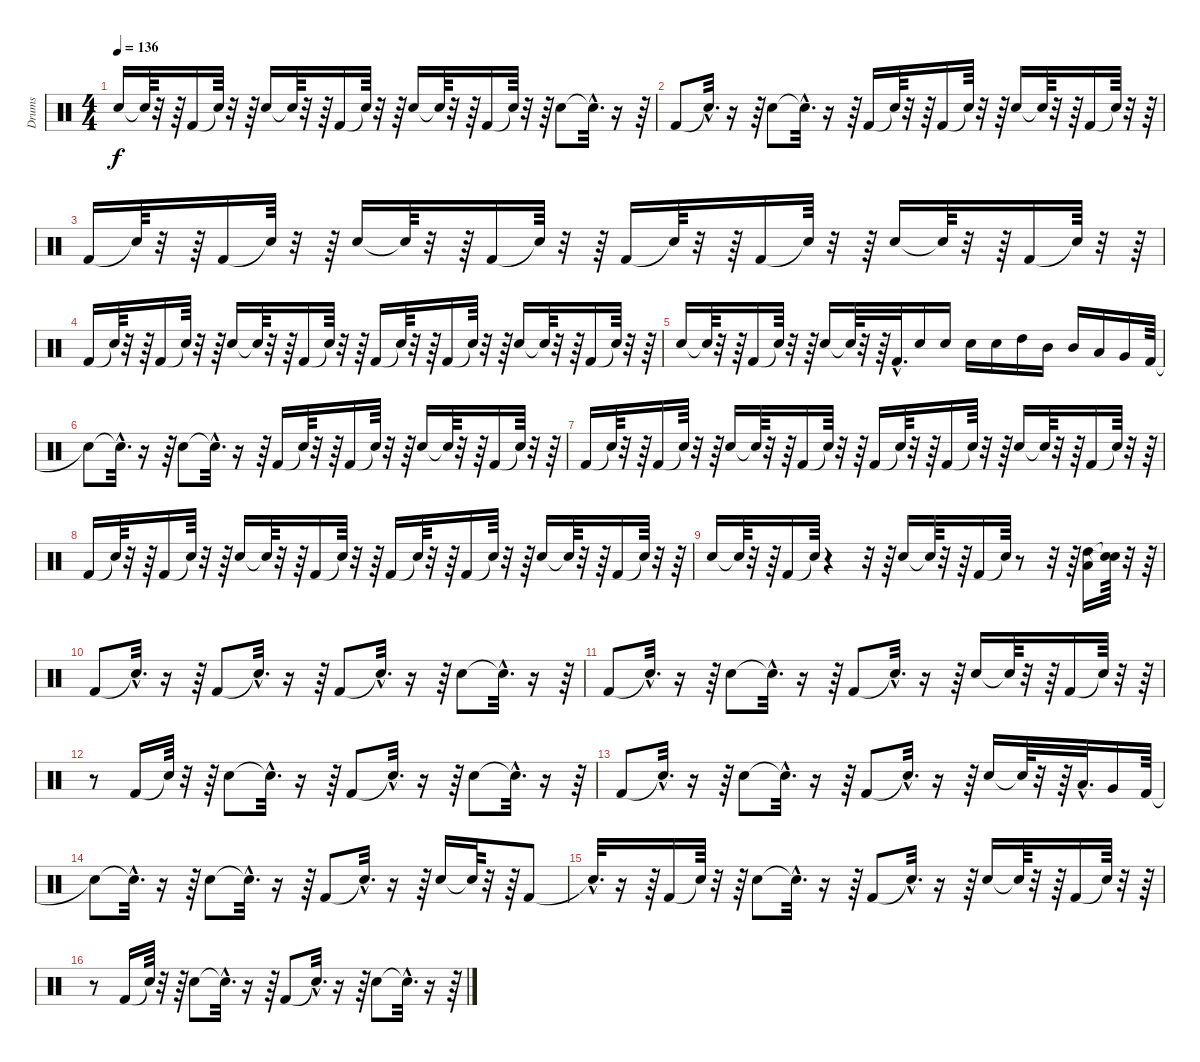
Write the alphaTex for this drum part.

\track ("Drums" "Drums") {instrument percussion}
\staff {score}
\articulation defaults
\ts (4 4)
\tempo 136
\clef neutral
\ks c "Snare (hit) 2".16{dy f} "Snare (hit)"{t}.64
r.32 r.64 "Kick (hit) 2".16 "Snare (hit)"{t}.64 r.32 r.64 "Snare (hit) 2".16 "Snare (hit)"{t}.64 r.32 r.64 "Kick (hit) 2".16 "Snare (hit)"{t}.64 r.32 r.64 "Snare (hit) 2".16 "Snare (hit)"{t}.64 r.32 r.64 "Kick (hit) 2".16 "Snare (hit)"{t}.64 r.32 r.64 "Snare (hit) 2".8 "Snare (hit)"{hac t}.32{d} r.16 r.64 |
"Kick (hit) 2".8 "Snare (hit)"{hac t}.32{d} r.16 r.64 "Snare (hit) 2".8 "Snare (hit)"{hac t}.32{d} r.16 r.64 "Kick (hit) 2".16 "Snare (hit)"{t}.64 r.32 r.64 "Kick (hit) 2".16 "Snare (hit)"{t}.64 r.32 r.64 "Snare (hit) 2".16 "Snare (hit)"{t}.64 r.32 r.64 "Kick (hit) 2".16 "Snare (hit)"{t}.64 r.32 r.64 |
"Kick (hit) 2".16 "Snare (hit)"{t}.64 r.32 r.64 "Kick (hit) 2".16 "Snare (hit)"{t}.64 r.32 r.64 "Snare (hit) 2".16 "Snare (hit)"{t}.64 r.32 r.64 "Kick (hit) 2".16 "Snare (hit)"{t}.64 r.32 r.64 "Kick (hit) 2".16 "Snare (hit)"{t}.64 r.32 r.64 "Kick (hit) 2".16 "Snare (hit)"{t}.64 r.32 r.64 "Snare (hit) 2".16 "Snare (hit)"{t}.64 r.32 r.64 "Kick (hit) 2".16 "Snare (hit)"{t}.64 r.32 r.64 |
"Kick (hit) 2".16 "Snare (hit)"{t}.64 r.32 r.64 "Kick (hit) 2".16 "Snare (hit)"{t}.64 r.32 r.64 "Snare (hit) 2".16 "Snare (hit)"{t}.64 r.32 r.64 "Kick (hit) 2".16 "Snare (hit)"{t}.64 r.32 r.64 "Kick (hit) 2".16 "Snare (hit)"{t}.64 r.32 r.64 "Kick (hit) 2".16 "Snare (hit)"{t}.64 r.32 r.64 "Snare (hit) 2".16 "Snare (hit)"{t}.64 r.32 r.64 "Kick (hit) 2".16 "Snare (hit)"{t}.64 r.32 r.64 |
"Snare (hit) 2".16 "Snare (hit)"{t}.64 r.32 r.64 "Kick (hit) 2".16 "Snare (hit)"{t}.64 r.32 r.64 "Snare (hit) 2".16 "Snare (hit)"{t}.64 r.32 r.64 "Kick (hit) 2"{hac}.32{d} "Snare (hit) 2".16 "Snare (hit) 2".16 "Snare (hit) 2".16 "Snare (hit) 2".16 "High Tom (hit)".16 "Mid Tom (hit)".16 "Mid Tom (hit)".16 "Low Tom (hit)".16 "Very Low Tom (hit)".16 "Kick (hit) 2".64 |
"Snare (hit)"{t}.8 "Snare (hit)"{hac t}.32{d} r.16 r.64 "Snare (hit) 2".8 "Snare (hit)"{hac t}.32{d} r.16 r.64 "Kick (hit) 2".16 "Snare (hit)"{t}.64 r.32 r.64 "Kick (hit) 2".16 "Snare (hit)"{t}.64 r.32 r.64 "Snare (hit) 2".16 "Snare (hit)"{t}.64 r.32 r.64 "Kick (hit) 2".16 "Snare (hit)"{t}.64 r.32 r.64 |
"Kick (hit) 2".16 "Snare (hit)"{t}.64 r.32 r.64 "Kick (hit) 2".16 "Snare (hit)"{t}.64 r.32 r.64 "Snare (hit) 2".16 "Snare (hit)"{t}.64 r.32 r.64 "Kick (hit) 2".16 "Snare (hit)"{t}.64 r.32 r.64 "Kick (hit) 2".16 "Snare (hit)"{t}.64 r.32 r.64 "Kick (hit) 2".16 "Snare (hit)"{t}.64 r.32 r.64 "Snare (hit) 2".16 "Snare (hit)"{t}.64 r.32 r.64 "Kick (hit) 2".16 "Snare (hit)"{t}.64 r.32 r.64 |
"Kick (hit) 2".16 "Snare (hit)"{t}.64 r.32 r.64 "Kick (hit) 2".16 "Snare (hit)"{t}.64 r.32 r.64 "Snare (hit) 2".16 "Snare (hit)"{t}.64 r.32 r.64 "Kick (hit) 2".16 "Snare (hit)"{t}.64 r.32 r.64 "Kick (hit) 2".16 "Snare (hit)"{t}.64 r.32 r.64 "Kick (hit) 2".16 "Snare (hit)"{t}.64 r.32 r.64 "Snare (hit) 2".16 "Snare (hit)"{t}.64 r.32 r.64 "Kick (hit) 2".16 "Snare (hit)"{t}.64 r.32 r.64 |
"Snare (hit) 2".16 "Snare (hit)"{t}.64 r.32 r.64 "Kick (hit) 2".16 "Snare (hit)"{t}.64 r.4 r.32 r.64 "Snare (hit) 2".16 "Snare (hit)"{t}.64 r.32 r.64 "Kick (hit) 2".16 "Snare (hit)"{t}.64 r.8 r.32 r.64 ("High Tom (hit)" "Low Tom (hit)").16 ("Snare (hit)"{t} "Snare (hit)"{t}).64 r.32 r.64 |
"Kick (hit) 2".8 "Snare (hit)"{hac t}.32{d} r.16 r.64 "Kick (hit) 2".8 "Snare (hit)"{hac t}.32{d} r.16 r.64 "Kick (hit) 2".8 "Snare (hit)"{hac t}.32{d} r.16 r.64 "Snare (hit) 2".8 "Snare (hit)"{hac t}.32{d} r.16 r.64 |
"Kick (hit) 2".8 "Snare (hit)"{hac t}.32{d} r.16 r.64 "Snare (hit) 2".8 "Snare (hit)"{hac t}.32{d} r.16 r.64 "Kick (hit) 2".8 "Snare (hit)"{hac t}.32{d} r.16 r.64 "Snare (hit) 2".16 "Snare (hit)"{t}.64 r.32 r.64 "Kick (hit) 2".16 "Snare (hit)"{t}.64 r.32 r.64 |
r.8 "Kick (hit) 2".16 "Snare (hit)"{t}.64 r.32 r.64 "Snare (hit) 2".8 "Snare (hit)"{hac t}.32{d} r.16 r.64 "Kick (hit) 2".8 "Snare (hit)"{hac t}.32{d} r.16 r.64 "Snare (hit) 2".8 "Snare (hit)"{hac t}.32{d} r.16 r.64 |
"Kick (hit) 2".8 "Snare (hit)"{hac t}.32{d} r.16 r.64 "Snare (hit) 2".8 "Snare (hit)"{hac t}.32{d} r.16 r.64 "Kick (hit) 2".8 "Snare (hit)"{hac t}.32{d} r.16 r.64 "Snare (hit) 2".16 "Snare (hit)"{t}.64 r.32 r.64 "Low Tom (hit)"{hac}.32{d} "Very Low Tom (hit)".16 "Kick (hit) 2".64 |
"Snare (hit)"{t}.8 "Snare (hit)"{hac t}.32{d} r.16 r.64 "Snare (hit) 2".8 "Snare (hit)"{hac t}.32{d} r.16 r.64 "Kick (hit) 2".8 "Snare (hit)"{hac t}.32{d} r.16 r.64 "Snare (hit) 2".16 "Snare (hit)"{t}.64 r.32 r.64 "Kick (hit) 2".8 |
"Snare (hit)"{hac t}.32{d} r.16 r.64 "Kick (hit) 2".16 "Snare (hit)"{t}.64 r.32 r.64 "Snare (hit) 2".8 "Snare (hit)"{hac t}.32{d} r.16 r.64 "Kick (hit) 2".8 "Snare (hit)"{hac t}.32{d} r.16 r.64 "Snare (hit) 2".16 "Snare (hit)"{t}.64 r.32 r.64 "Kick (hit) 2".16 "Snare (hit)"{t}.64 r.32 r.64 |
r.8 "Kick (hit) 2".16 "Snare (hit)"{t}.64 r.32 r.64 "Snare (hit) 2".8 "Snare (hit)"{hac t}.32{d} r.16 r.64 "Kick (hit) 2".8 "Snare (hit)"{hac t}.32{d} r.16 r.64 "Snare (hit) 2".8 "Snare (hit)"{hac t}.32{d} r.16 r.64
